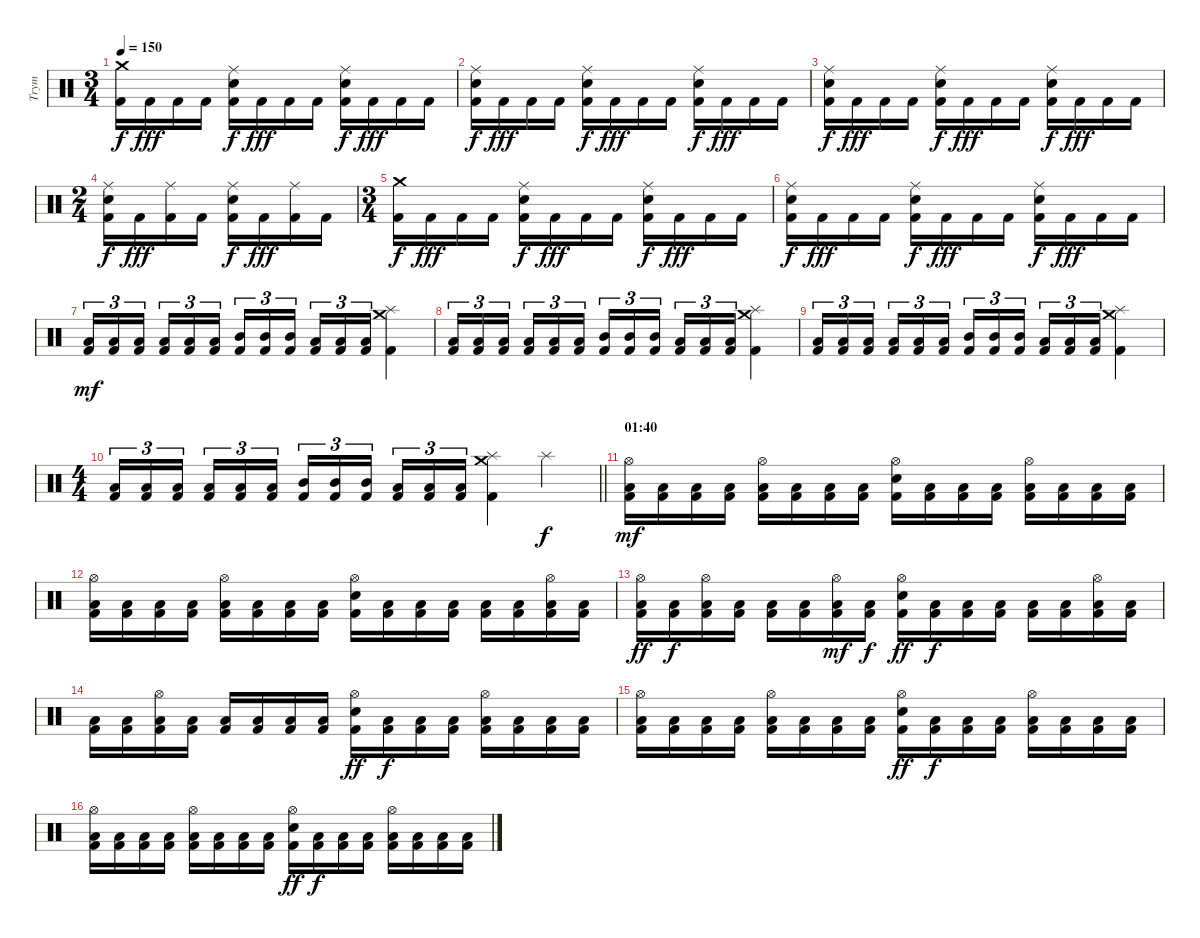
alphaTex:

\track ("Trym" "Trym") {instrument percussion}
\staff {score}
\articulation defaults
\ts (3 4)
\tempo 150
\clef neutral
\ks c
("Crash medium (hit)" "Kick (hit) 2").16{dy f} "Kick (hit) 2".16{dy fff} "Kick (hit) 2".16 "Kick (hit) 2".16 ("Snare (hit) 2" "Ride (middle)" "Kick (hit) 2").16{dy f} "Kick (hit) 2".16{dy fff} "Kick (hit) 2".16 "Kick (hit) 2".16 ("Snare (hit) 2" "Ride (middle)" "Kick (hit) 2").16{dy f} "Kick (hit) 2".16{dy fff} "Kick (hit) 2".16 "Kick (hit) 2".16 |
("Snare (hit) 2" "Ride (middle)" "Kick (hit) 2").16{dy f} "Kick (hit) 2".16{dy fff} "Kick (hit) 2".16 "Kick (hit) 2".16 ("Snare (hit) 2" "Ride (middle)" "Kick (hit) 2").16{dy f} "Kick (hit) 2".16{dy fff} "Kick (hit) 2".16 "Kick (hit) 2".16 ("Snare (hit) 2" "Ride (middle)" "Kick (hit) 2").16{dy f} "Kick (hit) 2".16{dy fff} "Kick (hit) 2".16 "Kick (hit) 2".16 |
("Snare (hit) 2" "Ride (middle)" "Kick (hit) 2").16{dy f} "Kick (hit) 2".16{dy fff} "Kick (hit) 2".16 "Kick (hit) 2".16 ("Snare (hit) 2" "Ride (middle)" "Kick (hit) 2").16{dy f} "Kick (hit) 2".16{dy fff} "Kick (hit) 2".16 "Kick (hit) 2".16 ("Snare (hit) 2" "Ride (middle)" "Kick (hit) 2").16{dy f} "Kick (hit) 2".16{dy fff} "Kick (hit) 2".16 "Kick (hit) 2".16 |
\ts (2 4)
("Snare (hit) 2" "Ride (middle)" "Kick (hit) 2").16{dy f} "Kick (hit) 2".16{dy fff} ("Ride (middle)" "Kick (hit) 2").16 "Kick (hit) 2".16 ("Snare (hit) 2" "Ride (middle)" "Kick (hit) 2").16{dy f} "Kick (hit) 2".16{dy fff} ("Ride (middle)" "Kick (hit) 2").16 "Kick (hit) 2".16 |
\ts (3 4)
("Crash medium (hit)" "Kick (hit) 2").16{dy f} "Kick (hit) 2".16{dy fff} "Kick (hit) 2".16 "Kick (hit) 2".16 ("Snare (hit) 2" "Ride (middle)" "Kick (hit) 2").16{dy f} "Kick (hit) 2".16{dy fff} "Kick (hit) 2".16 "Kick (hit) 2".16 ("Snare (hit) 2" "Ride (middle)" "Kick (hit) 2").16{dy f} "Kick (hit) 2".16{dy fff} "Kick (hit) 2".16 "Kick (hit) 2".16 |
("Snare (hit) 2" "Ride (middle)" "Kick (hit) 2").16{dy f} "Kick (hit) 2".16{dy fff} "Kick (hit) 2".16 "Kick (hit) 2".16 ("Snare (hit) 2" "Ride (middle)" "Kick (hit) 2").16{dy f} "Kick (hit) 2".16{dy fff} "Kick (hit) 2".16 "Kick (hit) 2".16 ("Snare (hit) 2" "Ride (middle)" "Kick (hit) 2").16{dy f} "Kick (hit) 2".16{dy fff} "Kick (hit) 2".16 "Kick (hit) 2".16 |
("Low Floor Tom (hit)" "Kick (hit) 2").16{tu (3 2) dy mf} ("Low Floor Tom (hit)" "Kick (hit) 2").16{tu (3 2)} ("Low Floor Tom (hit)" "Kick (hit) 2").16{tu (3 2) beam splitsecondary} ("Low Tom (hit)" "Kick (hit) 2").16{tu (3 2)} ("Low Tom (hit)" "Kick (hit) 2").16{tu (3 2)} ("Low Tom (hit)" "Kick (hit) 2").16{tu (3 2)} ("Mid Tom (hit)" "Kick (hit) 2").16{tu (3 2)} ("Mid Tom (hit)" "Kick (hit) 2").16{tu (3 2)} ("Mid Tom (hit)" "Kick (hit) 2").16{tu (3 2) beam splitsecondary} ("Low Tom (hit)" "Kick (hit) 2").16{tu (3 2)} ("Low Tom (hit)" "Kick (hit) 2").16{tu (3 2)} ("Low Tom (hit)" "Kick (hit) 2").16{tu (3 2)} ("Crash medium (hit)" "Splash (hit)" "Kick (hit) 2").4 |
("Low Floor Tom (hit)" "Kick (hit) 2").16{tu (3 2)} ("Low Floor Tom (hit)" "Kick (hit) 2").16{tu (3 2)} ("Low Floor Tom (hit)" "Kick (hit) 2").16{tu (3 2) beam splitsecondary} ("Low Tom (hit)" "Kick (hit) 2").16{tu (3 2)} ("Low Tom (hit)" "Kick (hit) 2").16{tu (3 2)} ("Low Tom (hit)" "Kick (hit) 2").16{tu (3 2)} ("Mid Tom (hit)" "Kick (hit) 2").16{tu (3 2)} ("Mid Tom (hit)" "Kick (hit) 2").16{tu (3 2)} ("Mid Tom (hit)" "Kick (hit) 2").16{tu (3 2) beam splitsecondary} ("Low Tom (hit)" "Kick (hit) 2").16{tu (3 2)} ("Low Tom (hit)" "Kick (hit) 2").16{tu (3 2)} ("Low Tom (hit)" "Kick (hit) 2").16{tu (3 2)} ("Crash medium (hit)" "Splash (hit)" "Kick (hit) 2").4 |
("Low Floor Tom (hit)" "Kick (hit) 2").16{tu (3 2)} ("Low Floor Tom (hit)" "Kick (hit) 2").16{tu (3 2)} ("Low Floor Tom (hit)" "Kick (hit) 2").16{tu (3 2) beam splitsecondary} ("Low Tom (hit)" "Kick (hit) 2").16{tu (3 2)} ("Low Tom (hit)" "Kick (hit) 2").16{tu (3 2)} ("Low Tom (hit)" "Kick (hit) 2").16{tu (3 2)} ("Mid Tom (hit)" "Kick (hit) 2").16{tu (3 2)} ("Mid Tom (hit)" "Kick (hit) 2").16{tu (3 2)} ("Mid Tom (hit)" "Kick (hit) 2").16{tu (3 2) beam splitsecondary} ("Low Tom (hit)" "Kick (hit) 2").16{tu (3 2)} ("Low Tom (hit)" "Kick (hit) 2").16{tu (3 2)} ("Low Tom (hit)" "Kick (hit) 2").16{tu (3 2)} ("Crash medium (hit)" "Splash (hit)" "Kick (hit) 2").4 |
\ts (4 4)
\barLineRight lightlight
("Low Floor Tom (hit)" "Kick (hit) 2").16{tu (3 2)} ("Low Floor Tom (hit)" "Kick (hit) 2").16{tu (3 2)} ("Low Floor Tom (hit)" "Kick (hit) 2").16{tu (3 2) beam splitsecondary} ("Low Tom (hit)" "Kick (hit) 2").16{tu (3 2)} ("Low Tom (hit)" "Kick (hit) 2").16{tu (3 2)} ("Low Tom (hit)" "Kick (hit) 2").16{tu (3 2)} ("Mid Tom (hit)" "Kick (hit) 2").16{tu (3 2)} ("Mid Tom (hit)" "Kick (hit) 2").16{tu (3 2)} ("Mid Tom (hit)" "Kick (hit) 2").16{tu (3 2) beam splitsecondary} ("Low Tom (hit)" "Kick (hit) 2").16{tu (3 2)} ("Low Tom (hit)" "Kick (hit) 2").16{tu (3 2)} ("Low Tom (hit)" "Kick (hit) 2").16{tu (3 2)} ("Crash medium (hit)" "Splash (hit)" "Kick (hit) 2").4 "Splash (hit)".4{dy f} |
\section ("" "01:40")
("Hi-Hat (open)" "Low Floor Tom (hit)" "Kick (hit) 2").16{dy mf} ("Low Floor Tom (hit)" "Kick (hit) 2").16 ("Low Floor Tom (hit)" "Kick (hit) 2").16 ("Low Floor Tom (hit)" "Kick (hit) 2").16 ("Hi-Hat (open)" "Low Floor Tom (hit)" "Kick (hit) 2").16 ("Low Floor Tom (hit)" "Kick (hit) 2").16 ("Low Floor Tom (hit)" "Kick (hit) 2").16 ("Low Floor Tom (hit)" "Kick (hit) 2").16 ("Snare (hit) 2" "Hi-Hat (open)" "Kick (hit) 2").16 ("Low Floor Tom (hit)" "Kick (hit) 2").16 ("Low Floor Tom (hit)" "Kick (hit) 2").16 ("Low Floor Tom (hit)" "Kick (hit) 2").16 ("Hi-Hat (open)" "Low Floor Tom (hit)" "Kick (hit) 2").16 ("Low Floor Tom (hit)" "Kick (hit) 2").16 ("Low Floor Tom (hit)" "Kick (hit) 2").16 ("Low Floor Tom (hit)" "Kick (hit) 2").16 |
("Hi-Hat (open)" "Low Floor Tom (hit)" "Kick (hit) 2").16 ("Low Floor Tom (hit)" "Kick (hit) 2").16 ("Low Floor Tom (hit)" "Kick (hit) 2").16 ("Low Floor Tom (hit)" "Kick (hit) 2").16 ("Hi-Hat (open)" "Low Floor Tom (hit)" "Kick (hit) 2").16 ("Low Floor Tom (hit)" "Kick (hit) 2").16 ("Low Floor Tom (hit)" "Kick (hit) 2").16 ("Low Floor Tom (hit)" "Kick (hit) 2").16 ("Snare (hit) 2" "Hi-Hat (open)" "Kick (hit) 2").16 ("Low Floor Tom (hit)" "Kick (hit) 2").16 ("Low Floor Tom (hit)" "Kick (hit) 2").16 ("Low Floor Tom (hit)" "Kick (hit) 2").16 ("Low Floor Tom (hit)" "Kick (hit) 2").16 ("Low Floor Tom (hit)" "Kick (hit) 2").16 ("Hi-Hat (open)" "Low Floor Tom (hit)" "Kick (hit) 2").16 ("Low Floor Tom (hit)" "Kick (hit) 2").16 |
("Hi-Hat (open)" "Low Floor Tom (hit)" "Kick (hit) 2").16{dy ff} ("Low Floor Tom (hit)" "Kick (hit) 2").16{dy f} ("Hi-Hat (open)" "Low Floor Tom (hit)" "Kick (hit) 2").16 ("Low Floor Tom (hit)" "Kick (hit) 2").16 ("Low Floor Tom (hit)" "Kick (hit) 2").16 ("Low Floor Tom (hit)" "Kick (hit) 2").16 ("Hi-Hat (open)" "Low Floor Tom (hit)" "Kick (hit) 2").16{dy mf} ("Low Floor Tom (hit)" "Kick (hit) 2").16{dy f} ("Snare (hit) 2" "Hi-Hat (open)" "Kick (hit) 2").16{dy ff} ("Low Floor Tom (hit)" "Kick (hit) 2").16{dy f} ("Low Floor Tom (hit)" "Kick (hit) 2").16 ("Low Floor Tom (hit)" "Kick (hit) 2").16 ("Low Floor Tom (hit)" "Kick (hit) 2").16 ("Low Floor Tom (hit)" "Kick (hit) 2").16 ("Hi-Hat (open)" "Low Floor Tom (hit)" "Kick (hit) 2").16 ("Low Floor Tom (hit)" "Kick (hit) 2").16 |
("Low Floor Tom (hit)" "Kick (hit) 2").16 ("Low Floor Tom (hit)" "Kick (hit) 2").16 ("Hi-Hat (open)" "Low Floor Tom (hit)" "Kick (hit) 2").16 ("Low Floor Tom (hit)" "Kick (hit) 2").16 ("Low Floor Tom (hit)" "Kick (hit) 2").16 ("Low Floor Tom (hit)" "Kick (hit) 2").16 ("Low Floor Tom (hit)" "Kick (hit) 2").16 ("Low Floor Tom (hit)" "Kick (hit) 2").16 ("Snare (hit) 2" "Hi-Hat (open)" "Kick (hit) 2").16{dy ff} ("Low Floor Tom (hit)" "Kick (hit) 2").16{dy f} ("Low Floor Tom (hit)" "Kick (hit) 2").16 ("Low Floor Tom (hit)" "Kick (hit) 2").16 ("Hi-Hat (open)" "Low Floor Tom (hit)" "Kick (hit) 2").16 ("Low Floor Tom (hit)" "Kick (hit) 2").16 ("Low Floor Tom (hit)" "Kick (hit) 2").16 ("Low Floor Tom (hit)" "Kick (hit) 2").16 |
("Hi-Hat (open)" "Low Floor Tom (hit)" "Kick (hit) 2").16 ("Low Floor Tom (hit)" "Kick (hit) 2").16 ("Low Floor Tom (hit)" "Kick (hit) 2").16 ("Low Floor Tom (hit)" "Kick (hit) 2").16 ("Hi-Hat (open)" "Low Floor Tom (hit)" "Kick (hit) 2").16 ("Low Floor Tom (hit)" "Kick (hit) 2").16 ("Low Floor Tom (hit)" "Kick (hit) 2").16 ("Low Floor Tom (hit)" "Kick (hit) 2").16 ("Snare (hit) 2" "Hi-Hat (open)" "Kick (hit) 2").16{dy ff} ("Low Floor Tom (hit)" "Kick (hit) 2").16{dy f} ("Low Floor Tom (hit)" "Kick (hit) 2").16 ("Low Floor Tom (hit)" "Kick (hit) 2").16 ("Hi-Hat (open)" "Low Floor Tom (hit)" "Kick (hit) 2").16 ("Low Floor Tom (hit)" "Kick (hit) 2").16 ("Low Floor Tom (hit)" "Kick (hit) 2").16 ("Low Floor Tom (hit)" "Kick (hit) 2").16 |
("Hi-Hat (open)" "Low Floor Tom (hit)" "Kick (hit) 2").16 ("Low Floor Tom (hit)" "Kick (hit) 2").16 ("Low Floor Tom (hit)" "Kick (hit) 2").16 ("Low Floor Tom (hit)" "Kick (hit) 2").16 ("Hi-Hat (open)" "Low Floor Tom (hit)" "Kick (hit) 2").16 ("Low Floor Tom (hit)" "Kick (hit) 2").16 ("Low Floor Tom (hit)" "Kick (hit) 2").16 ("Low Floor Tom (hit)" "Kick (hit) 2").16 ("Snare (hit) 2" "Hi-Hat (open)" "Kick (hit) 2").16{dy ff} ("Low Floor Tom (hit)" "Kick (hit) 2").16{dy f} ("Low Floor Tom (hit)" "Kick (hit) 2").16 ("Low Floor Tom (hit)" "Kick (hit) 2").16 ("Hi-Hat (open)" "Low Floor Tom (hit)" "Kick (hit) 2").16 ("Low Floor Tom (hit)" "Kick (hit) 2").16 ("Low Floor Tom (hit)" "Kick (hit) 2").16 ("Low Floor Tom (hit)" "Kick (hit) 2").16
